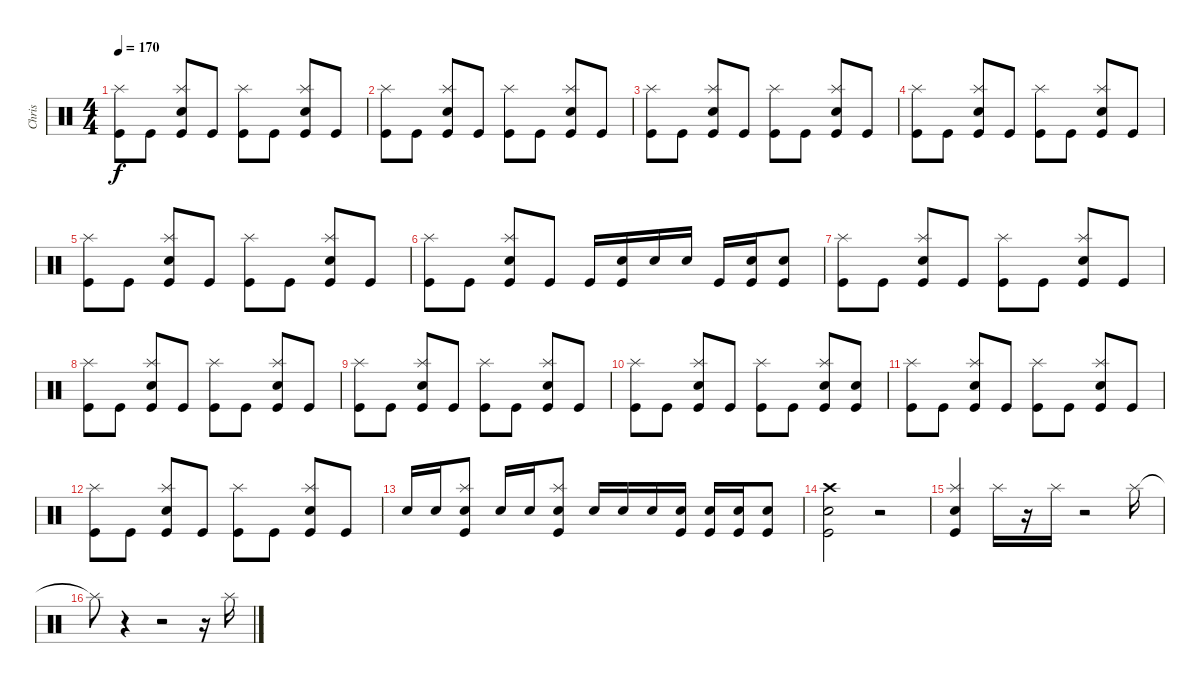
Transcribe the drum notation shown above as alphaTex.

\track ("Chris" "Chris") {instrument percussion}
\staff {score}
\articulation defaults
\ts (4 4)
\tempo 170
\clef neutral
\ks c
("Kick (hit)" "Splash (hit)").8{dy f} "Kick (hit)".8 ("Kick (hit)" "Splash (hit)" "Snare (hit) 2").8 "Kick (hit)".8 ("Kick (hit)" "Splash (hit)").8 "Kick (hit)".8 ("Kick (hit)" "Splash (hit)" "Snare (hit) 2").8 "Kick (hit)".8 |
("Kick (hit)" "Splash (hit)").8 "Kick (hit)".8 ("Kick (hit)" "Splash (hit)" "Snare (hit) 2").8 "Kick (hit)".8 ("Kick (hit)" "Splash (hit)").8 "Kick (hit)".8 ("Kick (hit)" "Splash (hit)" "Snare (hit) 2").8 "Kick (hit)".8 |
("Kick (hit)" "Splash (hit)").8 "Kick (hit)".8 ("Kick (hit)" "Splash (hit)" "Snare (hit) 2").8 "Kick (hit)".8 ("Kick (hit)" "Splash (hit)").8 "Kick (hit)".8 ("Kick (hit)" "Splash (hit)" "Snare (hit) 2").8 "Kick (hit)".8 |
("Kick (hit)" "Splash (hit)").8 "Kick (hit)".8 ("Kick (hit)" "Splash (hit)" "Snare (hit) 2").8 "Kick (hit)".8 ("Kick (hit)" "Splash (hit)").8 "Kick (hit)".8 ("Kick (hit)" "Splash (hit)" "Snare (hit) 2").8 "Kick (hit)".8 |
("Kick (hit)" "Splash (hit)").8 "Kick (hit)".8 ("Kick (hit)" "Splash (hit)" "Snare (hit) 2").8 "Kick (hit)".8 ("Kick (hit)" "Splash (hit)").8 "Kick (hit)".8 ("Kick (hit)" "Splash (hit)" "Snare (hit) 2").8 "Kick (hit)".8 |
("Kick (hit)" "Splash (hit)").8 "Kick (hit)".8 ("Kick (hit)" "Splash (hit)" "Snare (hit) 2").8 "Kick (hit)".8 "Kick (hit)".16 ("Kick (hit)" "Snare (hit) 2").16 "Electric Snare (hit)".16 "Electric Snare (hit)".16 "Kick (hit)".16 ("Kick (hit)" "Snare (hit) 2").16 ("Kick (hit)" "Snare (hit) 2").8 |
("Kick (hit)" "Splash (hit)").8 "Kick (hit)".8 ("Kick (hit)" "Splash (hit)" "Snare (hit) 2").8 "Kick (hit)".8 ("Kick (hit)" "Splash (hit)").8 "Kick (hit)".8 ("Kick (hit)" "Splash (hit)" "Snare (hit) 2").8 "Kick (hit)".8 |
("Kick (hit)" "Splash (hit)").8 "Kick (hit)".8 ("Kick (hit)" "Splash (hit)" "Snare (hit) 2").8 "Kick (hit)".8 ("Kick (hit)" "Splash (hit)").8 "Kick (hit)".8 ("Kick (hit)" "Splash (hit)" "Snare (hit) 2").8 "Kick (hit)".8 |
("Kick (hit)" "Splash (hit)").8 "Kick (hit)".8 ("Kick (hit)" "Splash (hit)" "Snare (hit) 2").8 "Kick (hit)".8 ("Kick (hit)" "Splash (hit)").8 "Kick (hit)".8 ("Kick (hit)" "Splash (hit)" "Snare (hit) 2").8 "Kick (hit)".8 |
("Kick (hit)" "Splash (hit)").8 "Kick (hit)".8 ("Kick (hit)" "Splash (hit)" "Snare (hit) 2").8 "Kick (hit)".8 ("Kick (hit)" "Splash (hit)").8 "Kick (hit)".8 ("Kick (hit)" "Splash (hit)" "Snare (hit) 2").8 ("Kick (hit)" "Snare (hit) 2").8 |
("Kick (hit)" "Splash (hit)").8 "Kick (hit)".8 ("Kick (hit)" "Splash (hit)" "Snare (hit) 2").8 "Kick (hit)".8 ("Kick (hit)" "Splash (hit)").8 "Kick (hit)".8 ("Kick (hit)" "Splash (hit)" "Snare (hit) 2").8 "Kick (hit)".8 |
("Kick (hit)" "Splash (hit)").8 "Kick (hit)".8 ("Kick (hit)" "Splash (hit)" "Snare (hit) 2").8 "Kick (hit)".8 ("Kick (hit)" "Splash (hit)").8 "Kick (hit)".8 ("Kick (hit)" "Splash (hit)" "Snare (hit) 2").8 "Kick (hit)".8 |
"Electric Snare (hit)".16 "Electric Snare (hit)".16 ("Kick (hit)" "Splash (hit)" "Snare (hit) 2").8 "Electric Snare (hit)".16 "Electric Snare (hit)".16 ("Kick (hit)" "Splash (hit)" "Snare (hit) 2").8 "Electric Snare (hit)".16 "Electric Snare (hit)".16 "Electric Snare (hit)".16 ("Kick (hit)" "Snare (hit) 2").16 ("Kick (hit)" "Snare (hit) 2").16 ("Kick (hit)" "Snare (hit) 2").16 ("Kick (hit)" "Snare (hit) 2").8 |
("Kick (hit)" "Crash high (hit)" "Snare (hit) 2").2 r.2 |
("Kick (hit)" "Splash (hit)" "Snare (hit) 2").4 "Splash (hit)".16 r.16 "Splash (hit)".16 r.2 "Splash (hit)".16 |
"Splash (hit)"{t}.8 r.4 r.2 r.16 "Splash (hit)".16
